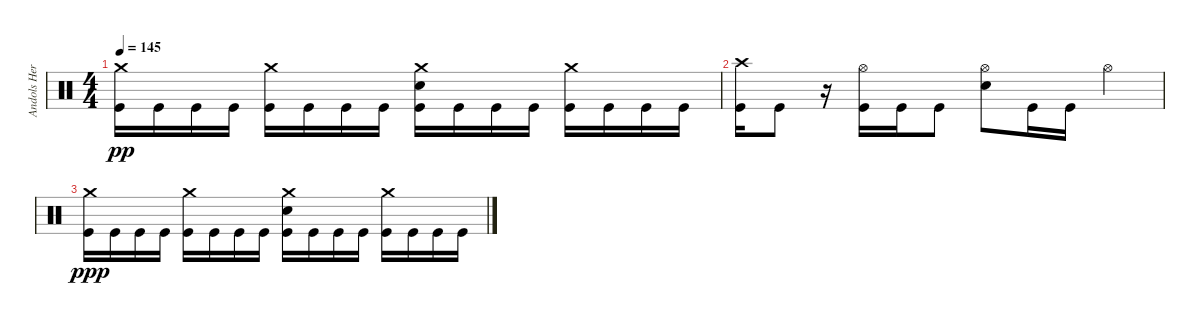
\track ("Andols Herrick" "Andols Her") {instrument percussion}
\staff
\articulation defaults
\ts (4 4)
\tempo 145
\clef neutral
\ks c
("Crash medium (hit)" "Kick (hit)").16{dy pp} "Kick (hit)".16 "Kick (hit)".16 "Kick (hit)".16 ("Crash medium (hit)" "Kick (hit)").16 "Kick (hit)".16 "Kick (hit)".16 "Kick (hit)".16 ("Crash medium (hit)" "Electric Snare (hit)" "Kick (hit)").16 "Kick (hit)".16 "Kick (hit)".16 "Kick (hit)".16 ("Crash medium (hit)" "Kick (hit)").16 "Kick (hit)".16 "Kick (hit)".16 "Kick (hit)".16 |
("Crash high (hit)" "Kick (hit)").16 "Kick (hit)".8 r.16 ("Hi-Hat (open)" "Kick (hit)").16 "Kick (hit)".16 "Kick (hit)".8 ("Hi-Hat (open)" "Electric Snare (hit)").8 "Kick (hit)".16 "Kick (hit)".16 "Hi-Hat (open)".4 |
("Crash medium (hit)" "Kick (hit)").16{dy ppp} "Kick (hit)".16 "Kick (hit)".16 "Kick (hit)".16 ("Crash medium (hit)" "Kick (hit)").16 "Kick (hit)".16 "Kick (hit)".16 "Kick (hit)".16 ("Crash medium (hit)" "Electric Snare (hit)" "Kick (hit)").16 "Kick (hit)".16 "Kick (hit)".16 "Kick (hit)".16 ("Crash medium (hit)" "Kick (hit)").16 "Kick (hit)".16 "Kick (hit)".16 "Kick (hit)".16
